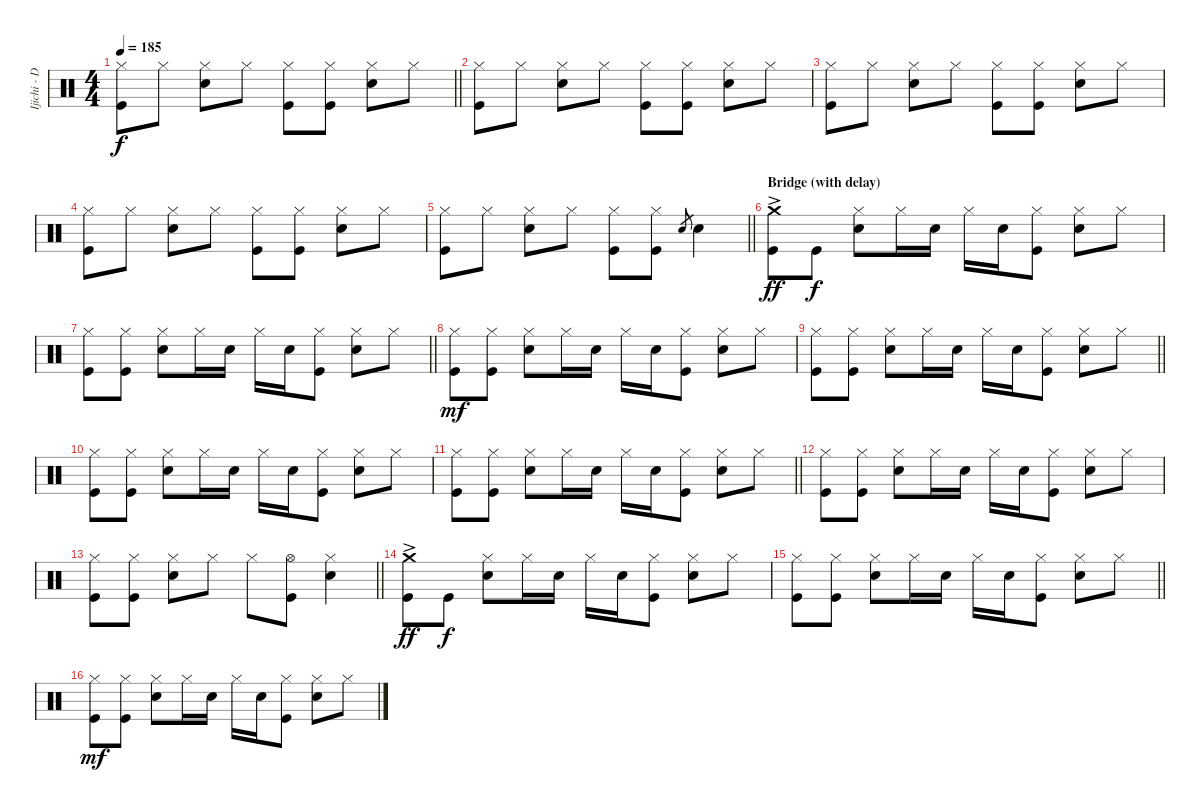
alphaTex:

\track ("Ijichi - Drums" "Ijichi - D") {instrument percussion}
\staff
\articulation defaults
\ts (4 4)
\tempo 185
\clef neutral
\barLineRight lightlight
\ks c
("Hi-Hat (closed)" "Kick (hit)").8{dy f} "Hi-Hat (closed)".8 ("Hi-Hat (closed)" "Electric Snare (hit)").8 "Hi-Hat (closed)".8 ("Hi-Hat (closed)" "Kick (hit)").8 ("Hi-Hat (closed)" "Kick (hit)").8 ("Hi-Hat (closed)" "Electric Snare (hit)").8 "Hi-Hat (closed)".8 |
("Hi-Hat (closed)" "Kick (hit)").8 "Hi-Hat (closed)".8 ("Hi-Hat (closed)" "Electric Snare (hit)").8 "Hi-Hat (closed)".8 ("Hi-Hat (closed)" "Kick (hit)").8 ("Hi-Hat (closed)" "Kick (hit)").8 ("Hi-Hat (closed)" "Electric Snare (hit)").8 "Hi-Hat (closed)".8 |
("Hi-Hat (closed)" "Kick (hit)").8 "Hi-Hat (closed)".8 ("Hi-Hat (closed)" "Electric Snare (hit)").8 "Hi-Hat (closed)".8 ("Hi-Hat (closed)" "Kick (hit)").8 ("Hi-Hat (closed)" "Kick (hit)").8 ("Hi-Hat (closed)" "Electric Snare (hit)").8 "Hi-Hat (closed)".8 |
("Hi-Hat (closed)" "Kick (hit)").8 "Hi-Hat (closed)".8 ("Hi-Hat (closed)" "Electric Snare (hit)").8 "Hi-Hat (closed)".8 ("Hi-Hat (closed)" "Kick (hit)").8 ("Hi-Hat (closed)" "Kick (hit)").8 ("Hi-Hat (closed)" "Electric Snare (hit)").8 "Hi-Hat (closed)".8 |
\barLineRight lightlight
("Hi-Hat (closed)" "Kick (hit)").8 "Hi-Hat (closed)".8 ("Hi-Hat (closed)" "Electric Snare (hit)").8 "Hi-Hat (closed)".8 ("Hi-Hat (closed)" "Kick (hit)").8 ("Hi-Hat (closed)" "Kick (hit)").8 "Electric Snare (hit)".8{gr} "Electric Snare (hit)".4 |
\section ("" "Bridge (with delay)")
("Crash medium (hit)"{ac} "Kick (hit)").8{dy ff} "Kick (hit)".8{dy f} ("Hi-Hat (closed)" "Electric Snare (hit)").8 "Hi-Hat (closed)".16 "Electric Snare (hit)".16 "Hi-Hat (closed)".16 "Electric Snare (hit)".16 ("Hi-Hat (closed)" "Kick (hit)").8 ("Hi-Hat (closed)" "Electric Snare (hit)").8 "Hi-Hat (closed)".8 |
\barLineRight lightlight
("Hi-Hat (closed)" "Kick (hit)").8 ("Hi-Hat (closed)" "Kick (hit)").8 ("Hi-Hat (closed)" "Electric Snare (hit)").8 "Hi-Hat (closed)".16 "Electric Snare (hit)".16 "Hi-Hat (closed)".16 "Electric Snare (hit)".16 ("Hi-Hat (closed)" "Kick (hit)").8 ("Hi-Hat (closed)" "Electric Snare (hit)").8 "Hi-Hat (closed)".8 |
("Hi-Hat (closed)" "Kick (hit)").8{dy mf} ("Hi-Hat (closed)" "Kick (hit)").8 ("Hi-Hat (closed)" "Electric Snare (hit)").8 "Hi-Hat (closed)".16 "Electric Snare (hit)".16 "Hi-Hat (closed)".16 "Electric Snare (hit)".16 ("Hi-Hat (closed)" "Kick (hit)").8 ("Hi-Hat (closed)" "Electric Snare (hit)").8 "Hi-Hat (closed)".8 |
\barLineRight lightlight
("Hi-Hat (closed)" "Kick (hit)").8 ("Hi-Hat (closed)" "Kick (hit)").8 ("Hi-Hat (closed)" "Electric Snare (hit)").8 "Hi-Hat (closed)".16 "Electric Snare (hit)".16 "Hi-Hat (closed)".16 "Electric Snare (hit)".16 ("Hi-Hat (closed)" "Kick (hit)").8 ("Hi-Hat (closed)" "Electric Snare (hit)").8 "Hi-Hat (closed)".8 |
("Hi-Hat (closed)" "Kick (hit)").8 ("Hi-Hat (closed)" "Kick (hit)").8 ("Hi-Hat (closed)" "Electric Snare (hit)").8 "Hi-Hat (closed)".16 "Electric Snare (hit)".16 "Hi-Hat (closed)".16 "Electric Snare (hit)".16 ("Hi-Hat (closed)" "Kick (hit)").8 ("Hi-Hat (closed)" "Electric Snare (hit)").8 "Hi-Hat (closed)".8 |
\barLineRight lightlight
("Hi-Hat (closed)" "Kick (hit)").8 ("Hi-Hat (closed)" "Kick (hit)").8 ("Hi-Hat (closed)" "Electric Snare (hit)").8 "Hi-Hat (closed)".16 "Electric Snare (hit)".16 "Hi-Hat (closed)".16 "Electric Snare (hit)".16 ("Hi-Hat (closed)" "Kick (hit)").8 ("Hi-Hat (closed)" "Electric Snare (hit)").8 "Hi-Hat (closed)".8 |
("Hi-Hat (closed)" "Kick (hit)").8 ("Hi-Hat (closed)" "Kick (hit)").8 ("Hi-Hat (closed)" "Electric Snare (hit)").8 "Hi-Hat (closed)".16 "Electric Snare (hit)".16 "Hi-Hat (closed)".16 "Electric Snare (hit)".16 ("Hi-Hat (closed)" "Kick (hit)").8 ("Hi-Hat (closed)" "Electric Snare (hit)").8 "Hi-Hat (closed)".8 |
\barLineRight lightlight
("Hi-Hat (closed)" "Kick (hit)").8 ("Hi-Hat (closed)" "Kick (hit)").8 ("Hi-Hat (closed)" "Electric Snare (hit)").8 "Hi-Hat (closed)".8 "Hi-Hat (closed)".8 ("Hi-Hat (open)" "Kick (hit)").8 ("Hi-Hat (closed)" "Electric Snare (hit)").4 |
("Crash medium (hit)"{ac} "Kick (hit)").8{dy ff} "Kick (hit)".8{dy f} ("Hi-Hat (closed)" "Electric Snare (hit)").8 "Hi-Hat (closed)".16 "Electric Snare (hit)".16 "Hi-Hat (closed)".16 "Electric Snare (hit)".16 ("Hi-Hat (closed)" "Kick (hit)").8 ("Hi-Hat (closed)" "Electric Snare (hit)").8 "Hi-Hat (closed)".8 |
\barLineRight lightlight
("Hi-Hat (closed)" "Kick (hit)").8 ("Hi-Hat (closed)" "Kick (hit)").8 ("Hi-Hat (closed)" "Electric Snare (hit)").8 "Hi-Hat (closed)".16 "Electric Snare (hit)".16 "Hi-Hat (closed)".16 "Electric Snare (hit)".16 ("Hi-Hat (closed)" "Kick (hit)").8 ("Hi-Hat (closed)" "Electric Snare (hit)").8 "Hi-Hat (closed)".8 |
("Hi-Hat (closed)" "Kick (hit)").8{dy mf} ("Hi-Hat (closed)" "Kick (hit)").8 ("Hi-Hat (closed)" "Electric Snare (hit)").8 "Hi-Hat (closed)".16 "Electric Snare (hit)".16 "Hi-Hat (closed)".16 "Electric Snare (hit)".16 ("Hi-Hat (closed)" "Kick (hit)").8 ("Hi-Hat (closed)" "Electric Snare (hit)").8 "Hi-Hat (closed)".8
